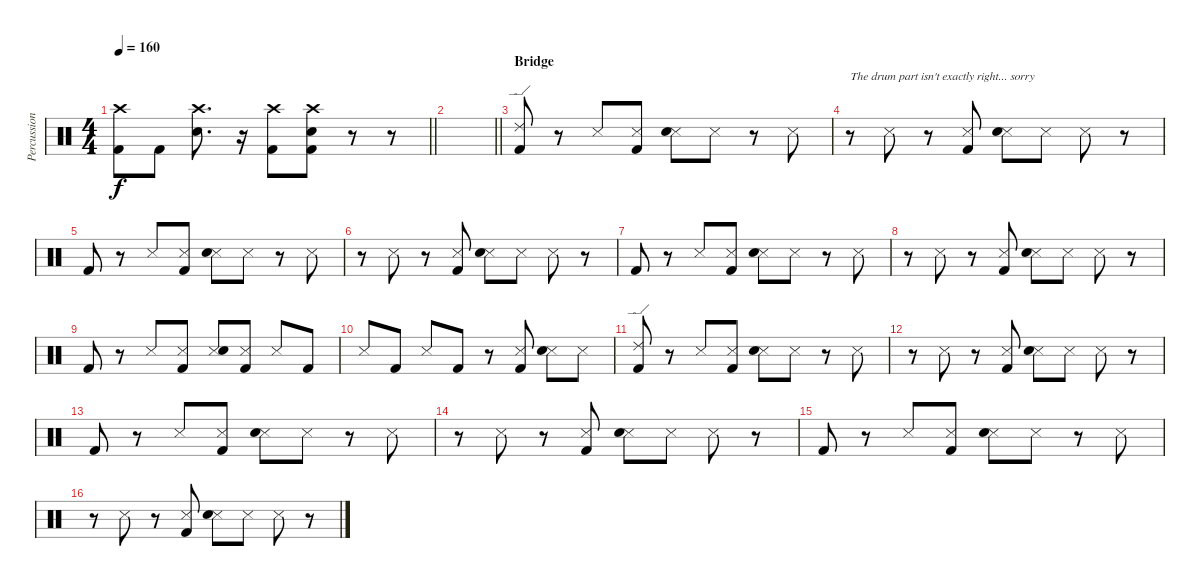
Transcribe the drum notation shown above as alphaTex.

\track ("Percussion" "Percussion") {instrument percussion}
\staff {score}
\articulation defaults
\ts (4 4)
\tempo 160
\clef neutral
\barLineRight lightlight
\ks c
("Crash high (hit)" "Kick (hit) 2").8{dy f} "Kick (hit) 2".8 ("Crash high (hit)" "Electric Snare (hit)").8{d} r.16 ("Crash high (hit)" "Kick (hit) 2").8 ("Crash high (hit)" "Electric Snare (hit)" "Kick (hit) 2").8 r.8 r.8 |
\barLineRight lightlight
|
\section ("" "Bridge")
("Ride (edge) 2" "Kick (hit) 2").8 r.8 "Snare (side stick) 3".8 ("Snare (side stick) 3" "Kick (hit) 2").8 ("Snare (side stick) 3" "Electric Snare (hit)").8 "Snare (side stick) 3".8 r.8 "Snare (side stick) 3".8 |
r.8{txt "The drum part isn't exactly right... sorry"} "Snare (side stick) 3".8 r.8 ("Snare (side stick) 3" "Kick (hit) 2").8 ("Snare (side stick) 3" "Electric Snare (hit)").8 "Snare (side stick) 3".8 "Snare (side stick) 3".8 r.8 |
"Kick (hit) 2".8 r.8 "Snare (side stick) 3".8 ("Snare (side stick) 3" "Kick (hit) 2").8 ("Snare (side stick) 3" "Electric Snare (hit)").8 "Snare (side stick) 3".8 r.8 "Snare (side stick) 3".8 |
r.8 "Snare (side stick) 3".8 r.8 ("Snare (side stick) 3" "Kick (hit) 2").8 ("Snare (side stick) 3" "Electric Snare (hit)").8 "Snare (side stick) 3".8 "Snare (side stick) 3".8 r.8 |
"Kick (hit) 2".8 r.8 "Snare (side stick) 3".8 ("Snare (side stick) 3" "Kick (hit) 2").8 ("Snare (side stick) 3" "Electric Snare (hit)").8 "Snare (side stick) 3".8 r.8 "Snare (side stick) 3".8 |
r.8 "Snare (side stick) 3".8 r.8 ("Snare (side stick) 3" "Kick (hit) 2").8 ("Snare (side stick) 3" "Electric Snare (hit)").8 "Snare (side stick) 3".8 "Snare (side stick) 3".8 r.8 |
"Kick (hit) 2".8 r.8 "Snare (side stick) 3".8 ("Snare (side stick) 3" "Kick (hit) 2").8 ("Snare (side stick) 3" "Electric Snare (hit)").8 ("Snare (side stick) 3" "Kick (hit) 2").8 "Snare (side stick) 3".8 "Kick (hit) 2".8 |
"Snare (side stick) 3".8 "Kick (hit) 2".8 "Snare (side stick) 3".8 "Kick (hit) 2".8 r.8 ("Snare (side stick) 3" "Kick (hit) 2").8 ("Snare (side stick) 3" "Electric Snare (hit)").8 "Snare (side stick) 3".8 |
("Ride (edge) 2" "Kick (hit) 2").8 r.8 "Snare (side stick) 3".8 ("Snare (side stick) 3" "Kick (hit) 2").8 ("Snare (side stick) 3" "Electric Snare (hit)").8 "Snare (side stick) 3".8 r.8 "Snare (side stick) 3".8 |
r.8 "Snare (side stick) 3".8 r.8 ("Snare (side stick) 3" "Kick (hit) 2").8 ("Snare (side stick) 3" "Electric Snare (hit)").8 "Snare (side stick) 3".8 "Snare (side stick) 3".8 r.8 |
"Kick (hit) 2".8 r.8 "Snare (side stick) 3".8 ("Snare (side stick) 3" "Kick (hit) 2").8 ("Snare (side stick) 3" "Electric Snare (hit)").8 "Snare (side stick) 3".8 r.8 "Snare (side stick) 3".8 |
r.8 "Snare (side stick) 3".8 r.8 ("Snare (side stick) 3" "Kick (hit) 2").8 ("Snare (side stick) 3" "Electric Snare (hit)").8 "Snare (side stick) 3".8 "Snare (side stick) 3".8 r.8 |
"Kick (hit) 2".8 r.8 "Snare (side stick) 3".8 ("Snare (side stick) 3" "Kick (hit) 2").8 ("Snare (side stick) 3" "Electric Snare (hit)").8 "Snare (side stick) 3".8 r.8 "Snare (side stick) 3".8 |
r.8 "Snare (side stick) 3".8 r.8 ("Snare (side stick) 3" "Kick (hit) 2").8 ("Snare (side stick) 3" "Electric Snare (hit)").8 "Snare (side stick) 3".8 "Snare (side stick) 3".8 r.8
